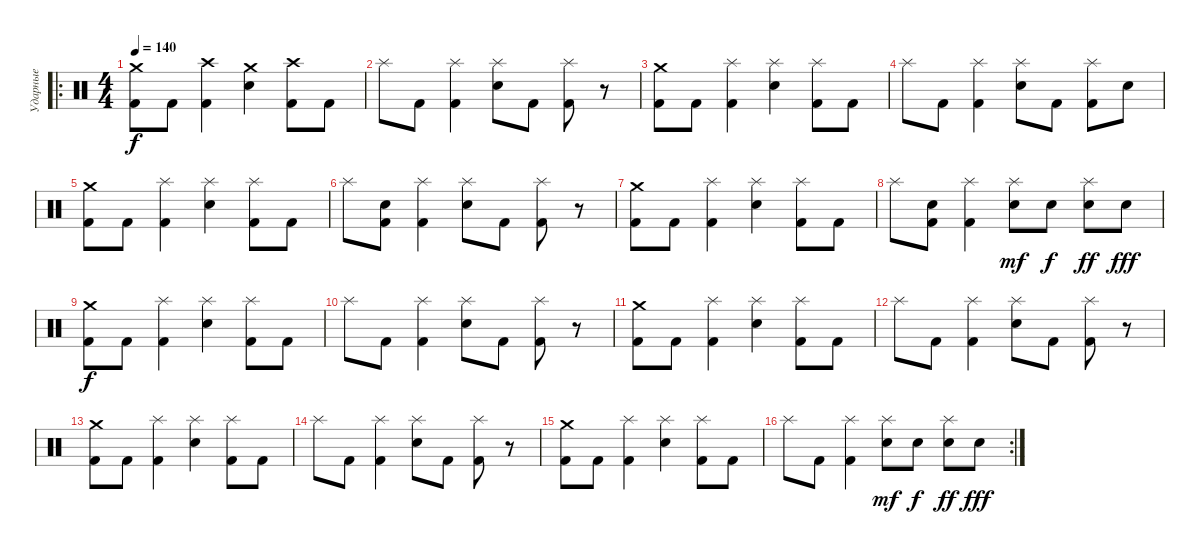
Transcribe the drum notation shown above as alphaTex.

\track ("Ударные" "Ударные") {instrument percussion}
\staff {score}
\articulation defaults
\ro
\ts (4 4)
\tempo 140
\clef neutral
\ks c
("Kick (hit) 2" "Crash medium (hit)").8{dy f volume 9} "Kick (hit) 2".8 ("Crash high (hit)" "Kick (hit) 2").4 ("Crash medium (hit)" "Electric Snare (hit)").4 ("Crash high (hit)" "Kick (hit) 2").8 "Kick (hit) 2".8 |
"Splash (hit)".8 "Kick (hit) 2".8 ("Splash (hit)" "Kick (hit) 2").4 ("Splash (hit)" "Electric Snare (hit)").8 "Kick (hit) 2".8 ("Splash (hit)" "Kick (hit) 2").8 r.8 |
("Kick (hit) 2" "Crash medium (hit)").8 "Kick (hit) 2".8 ("Splash (hit)" "Kick (hit) 2").4 ("Splash (hit)" "Electric Snare (hit)").4 ("Splash (hit)" "Kick (hit) 2").8 "Kick (hit) 2".8 |
"Splash (hit)".8 "Kick (hit) 2".8 ("Splash (hit)" "Kick (hit) 2").4 ("Splash (hit)" "Electric Snare (hit)").8 "Kick (hit) 2".8 ("Splash (hit)" "Kick (hit) 2").8 "Electric Snare (hit)".8 |
("Kick (hit) 2" "Crash medium (hit)").8 "Kick (hit) 2".8 ("Splash (hit)" "Kick (hit) 2").4 ("Splash (hit)" "Electric Snare (hit)").4 ("Splash (hit)" "Kick (hit) 2").8 "Kick (hit) 2".8 |
"Splash (hit)".8 ("Electric Snare (hit)" "Kick (hit) 2").8 ("Splash (hit)" "Kick (hit) 2").4 ("Splash (hit)" "Electric Snare (hit)").8 "Kick (hit) 2".8 ("Splash (hit)" "Kick (hit) 2").8 r.8 |
("Kick (hit) 2" "Crash medium (hit)").8 "Kick (hit) 2".8 ("Splash (hit)" "Kick (hit) 2").4 ("Splash (hit)" "Electric Snare (hit)").4 ("Splash (hit)" "Kick (hit) 2").8 "Kick (hit) 2".8 |
"Splash (hit)".8 ("Electric Snare (hit)" "Kick (hit) 2").8 ("Splash (hit)" "Kick (hit) 2").4 ("Splash (hit)" "Electric Snare (hit)").8{dy mf} "Electric Snare (hit)".8{dy f} ("Splash (hit)" "Electric Snare (hit)").8{dy ff} "Electric Snare (hit)".8{dy fff} |
("Kick (hit) 2" "Crash medium (hit)").8{dy f} "Kick (hit) 2".8 ("Splash (hit)" "Kick (hit) 2").4 ("Splash (hit)" "Electric Snare (hit)").4 ("Splash (hit)" "Kick (hit) 2").8 "Kick (hit) 2".8 |
"Splash (hit)".8 "Kick (hit) 2".8 ("Splash (hit)" "Kick (hit) 2").4 ("Splash (hit)" "Electric Snare (hit)").8 "Kick (hit) 2".8 ("Splash (hit)" "Kick (hit) 2").8 r.8 |
("Kick (hit) 2" "Crash medium (hit)").8 "Kick (hit) 2".8 ("Splash (hit)" "Kick (hit) 2").4 ("Splash (hit)" "Electric Snare (hit)").4 ("Splash (hit)" "Kick (hit) 2").8 "Kick (hit) 2".8 |
"Splash (hit)".8 "Kick (hit) 2".8 ("Splash (hit)" "Kick (hit) 2").4 ("Splash (hit)" "Electric Snare (hit)").8 "Kick (hit) 2".8 ("Splash (hit)" "Kick (hit) 2").8 r.8 |
("Kick (hit) 2" "Crash medium (hit)").8 "Kick (hit) 2".8 ("Splash (hit)" "Kick (hit) 2").4 ("Splash (hit)" "Electric Snare (hit)").4 ("Splash (hit)" "Kick (hit) 2").8 "Kick (hit) 2".8 |
"Splash (hit)".8 "Kick (hit) 2".8 ("Splash (hit)" "Kick (hit) 2").4 ("Splash (hit)" "Electric Snare (hit)").8 "Kick (hit) 2".8 ("Splash (hit)" "Kick (hit) 2").8 r.8 |
("Kick (hit) 2" "Crash medium (hit)").8 "Kick (hit) 2".8 ("Splash (hit)" "Kick (hit) 2").4 ("Splash (hit)" "Electric Snare (hit)").4 ("Splash (hit)" "Kick (hit) 2").8 "Kick (hit) 2".8 |
\rc 2 "Splash (hit)".8 "Kick (hit) 2".8
("Splash (hit)" "Kick (hit) 2").4 ("Splash (hit)" "Electric Snare (hit)").8{dy mf} "Electric Snare (hit)".8{dy f} ("Splash (hit)" "Electric Snare (hit)").8{dy ff} "Electric Snare (hit)".8{dy fff}
